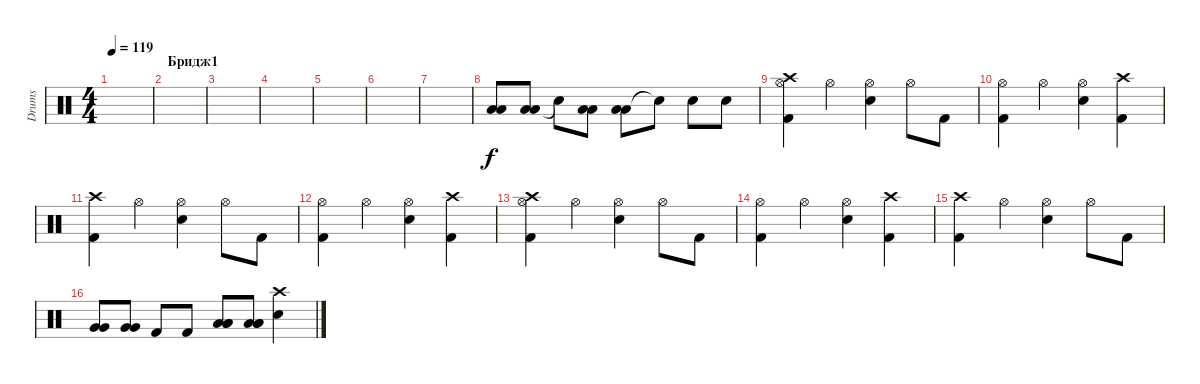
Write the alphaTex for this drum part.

\track ("Drums" "Drums") {instrument percussion}
\staff {score}
\articulation defaults
\ts (4 4)
\tempo 119
\clef neutral
\ks c
|
\section ("" "Бридж1")
|
|
|
|
|
|
("Low Tom (hit)" "Low Floor Tom (hit)").8 ("Low Tom (hit)" "Low Floor Tom (hit)").8 "Snare (hit)"{t}.8 ("Low Tom (hit)" "Low Floor Tom (hit)").8 ("Low Tom (hit)" "Low Floor Tom (hit)").8 "Snare (hit)"{t}.8 "Electric Snare (hit)".8 "Electric Snare (hit)".8 |
("Kick (hit) 2" "Hi-Hat (open)" "Crash high (hit)").4 "Hi-Hat (open)".4 ("Electric Snare (hit)" "Hi-Hat (open)").4 "Hi-Hat (open)".8 "Kick (hit) 2".8 |
("Kick (hit) 2" "Hi-Hat (open)").4 "Hi-Hat (open)".4 ("Electric Snare (hit)" "Hi-Hat (open)").4 ("Kick (hit) 2" "Crash high (hit)").4 |
("Kick (hit) 2" "Crash high (hit)").4 "Hi-Hat (open)".4 ("Electric Snare (hit)" "Hi-Hat (open)").4 "Hi-Hat (open)".8 "Kick (hit) 2".8 |
("Kick (hit) 2" "Hi-Hat (open)").4 "Hi-Hat (open)".4 ("Electric Snare (hit)" "Hi-Hat (open)").4 ("Kick (hit) 2" "Crash high (hit)").4 |
("Kick (hit) 2" "Hi-Hat (open)" "Crash high (hit)").4 "Hi-Hat (open)".4 ("Electric Snare (hit)" "Hi-Hat (open)").4 "Hi-Hat (open)".8 "Kick (hit) 2".8 |
("Kick (hit) 2" "Hi-Hat (open)").4 "Hi-Hat (open)".4 ("Electric Snare (hit)" "Hi-Hat (open)").4 ("Kick (hit) 2" "Crash high (hit)").4 |
("Kick (hit) 2" "Crash high (hit)").4 "Hi-Hat (open)".4 ("Electric Snare (hit)" "Hi-Hat (open)").4 "Hi-Hat (open)".8 "Kick (hit) 2".8 |
("Very Low Tom (hit)" "Very Low Tom (hit)").8 ("Very Low Tom (hit)" "Very Low Tom (hit)").8 "Kick (hit) 2".8 "Kick (hit) 2".8 ("Low Floor Tom (hit)" "Low Floor Tom (hit)" "Low Floor Tom (hit)").8 ("Low Floor Tom (hit)" "Low Floor Tom (hit)" "Low Floor Tom (hit)").8 ("Electric Snare (hit)" "Crash high (hit)").4
